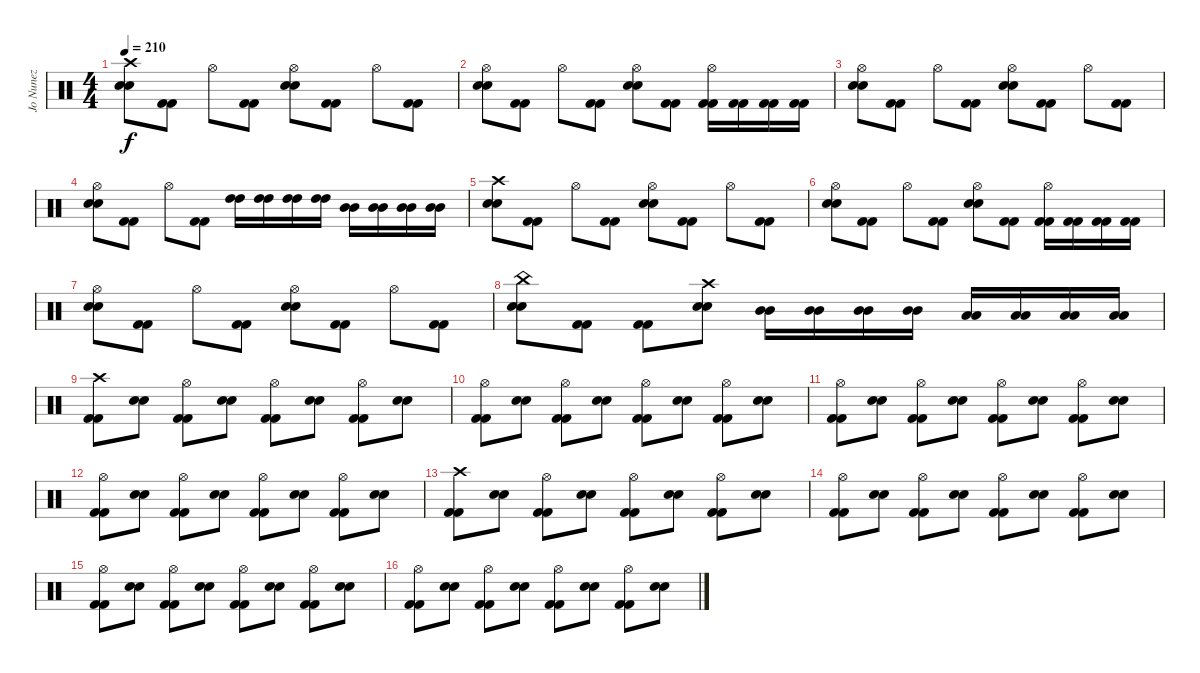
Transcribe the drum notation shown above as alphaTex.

\track ("Jo Nunez" "Jo Nunez") {instrument percussion}
\staff {score}
\articulation defaults
\ts (4 4)
\tempo 210
\clef neutral
\ks c
("Electric Snare (hit)" "Electric Snare (hit)" "Crash high (hit)").8{dy f} ("Kick (hit) 2" "Kick (hit) 2").8 "Hi-Hat (open)".8 ("Kick (hit) 2" "Kick (hit) 2").8 ("Electric Snare (hit)" "Electric Snare (hit)" "Hi-Hat (open)").8 ("Kick (hit) 2" "Kick (hit) 2").8 "Hi-Hat (open)".8 ("Kick (hit) 2" "Kick (hit) 2").8 |
("Electric Snare (hit)" "Electric Snare (hit)" "Hi-Hat (open)").8 ("Kick (hit) 2" "Kick (hit) 2").8 "Hi-Hat (open)".8 ("Kick (hit) 2" "Kick (hit) 2").8 ("Electric Snare (hit)" "Electric Snare (hit)" "Hi-Hat (open)").8 ("Kick (hit) 2" "Kick (hit) 2").8 ("Kick (hit) 2" "Kick (hit) 2" "Hi-Hat (open)").16 ("Kick (hit) 2" "Kick (hit) 2").16 ("Kick (hit) 2" "Kick (hit) 2").16 ("Kick (hit) 2" "Kick (hit) 2").16 |
("Electric Snare (hit)" "Electric Snare (hit)" "Hi-Hat (open)").8 ("Kick (hit) 2" "Kick (hit) 2").8 "Hi-Hat (open)".8 ("Kick (hit) 2" "Kick (hit) 2").8 ("Electric Snare (hit)" "Electric Snare (hit)" "Hi-Hat (open)").8 ("Kick (hit) 2" "Kick (hit) 2").8 "Hi-Hat (open)".8 ("Kick (hit) 2" "Kick (hit) 2").8 |
("Electric Snare (hit)" "Electric Snare (hit)" "Hi-Hat (open)").8 ("Kick (hit) 2" "Kick (hit) 2").8 "Hi-Hat (open)".8 ("Kick (hit) 2" "Kick (hit) 2").8 ("High Tom (hit)" "High Tom (hit)").16 ("High Tom (hit)" "High Tom (hit)").16 ("High Tom (hit)" "High Tom (hit)").16 ("High Tom (hit)" "High Tom (hit)").16 ("Mid Tom (hit)" "Mid Tom (hit)").16 ("Mid Tom (hit)" "Mid Tom (hit)").16 ("Mid Tom (hit)" "Mid Tom (hit)").16 ("Mid Tom (hit)" "Mid Tom (hit)").16 |
("Electric Snare (hit)" "Electric Snare (hit)" "Crash high (hit)").8 ("Kick (hit) 2" "Kick (hit) 2").8 "Hi-Hat (open)".8 ("Kick (hit) 2" "Kick (hit) 2").8 ("Electric Snare (hit)" "Electric Snare (hit)" "Hi-Hat (open)").8 ("Kick (hit) 2" "Kick (hit) 2").8 "Hi-Hat (open)".8 ("Kick (hit) 2" "Kick (hit) 2").8 |
("Electric Snare (hit)" "Electric Snare (hit)" "Hi-Hat (open)").8 ("Kick (hit) 2" "Kick (hit) 2").8 "Hi-Hat (open)".8 ("Kick (hit) 2" "Kick (hit) 2").8 ("Electric Snare (hit)" "Electric Snare (hit)" "Hi-Hat (open)").8 ("Kick (hit) 2" "Kick (hit) 2").8 ("Kick (hit) 2" "Kick (hit) 2" "Hi-Hat (open)").16 ("Kick (hit) 2" "Kick (hit) 2").16 ("Kick (hit) 2" "Kick (hit) 2").16 ("Kick (hit) 2" "Kick (hit) 2").16 |
("Electric Snare (hit)" "Electric Snare (hit)" "Hi-Hat (open)").8 ("Kick (hit) 2" "Kick (hit) 2").8 "Hi-Hat (open)".8 ("Kick (hit) 2" "Kick (hit) 2").8 ("Electric Snare (hit)" "Electric Snare (hit)" "Hi-Hat (open)").8 ("Kick (hit) 2" "Kick (hit) 2").8 "Hi-Hat (open)".8 ("Kick (hit) 2" "Kick (hit) 2").8 |
("Electric Snare (hit)" "Electric Snare (hit)" "China (hit)").8 ("Kick (hit) 2" "Kick (hit) 2").8 ("Kick (hit) 2" "Kick (hit) 2").8 ("Electric Snare (hit)" "Electric Snare (hit)" "Crash high (hit)").8 ("Mid Tom (hit)" "Mid Tom (hit)").16 ("Mid Tom (hit)" "Mid Tom (hit)").16 ("Mid Tom (hit)" "Mid Tom (hit)").16 ("Mid Tom (hit)" "Mid Tom (hit)").16 ("Low Tom (hit)" "Low Tom (hit)").16 ("Low Tom (hit)" "Low Tom (hit)").16 ("Low Tom (hit)" "Low Tom (hit)").16 ("Low Tom (hit)" "Low Tom (hit)").16 |
("Kick (hit) 2" "Kick (hit) 2" "Crash high (hit)").8 ("Electric Snare (hit)" "Electric Snare (hit)").8 ("Kick (hit) 2" "Kick (hit) 2" "Hi-Hat (open)").8 ("Electric Snare (hit)" "Electric Snare (hit)").8 ("Kick (hit) 2" "Kick (hit) 2" "Hi-Hat (open)").8 ("Electric Snare (hit)" "Electric Snare (hit)").8 ("Kick (hit) 2" "Kick (hit) 2" "Hi-Hat (open)").8 ("Electric Snare (hit)" "Electric Snare (hit)").8 |
("Kick (hit) 2" "Kick (hit) 2" "Hi-Hat (open)").8 ("Electric Snare (hit)" "Electric Snare (hit)").8 ("Kick (hit) 2" "Kick (hit) 2" "Hi-Hat (open)").8 ("Electric Snare (hit)" "Electric Snare (hit)").8 ("Kick (hit) 2" "Kick (hit) 2" "Hi-Hat (open)").8 ("Electric Snare (hit)" "Electric Snare (hit)").8 ("Kick (hit) 2" "Kick (hit) 2" "Hi-Hat (open)").8 ("Electric Snare (hit)" "Electric Snare (hit)").8 |
("Kick (hit) 2" "Kick (hit) 2" "Hi-Hat (open)").8 ("Electric Snare (hit)" "Electric Snare (hit)").8 ("Kick (hit) 2" "Kick (hit) 2" "Hi-Hat (open)").8 ("Electric Snare (hit)" "Electric Snare (hit)").8 ("Kick (hit) 2" "Kick (hit) 2" "Hi-Hat (open)").8 ("Electric Snare (hit)" "Electric Snare (hit)").8 ("Kick (hit) 2" "Kick (hit) 2" "Hi-Hat (open)").8 ("Electric Snare (hit)" "Electric Snare (hit)").8 |
("Kick (hit) 2" "Kick (hit) 2" "Hi-Hat (open)").8 ("Electric Snare (hit)" "Electric Snare (hit)").8 ("Kick (hit) 2" "Kick (hit) 2" "Hi-Hat (open)").8 ("Electric Snare (hit)" "Electric Snare (hit)").8 ("Kick (hit) 2" "Kick (hit) 2" "Hi-Hat (open)").8 ("Electric Snare (hit)" "Electric Snare (hit)").8 ("Kick (hit) 2" "Kick (hit) 2" "Hi-Hat (open)").8 ("Electric Snare (hit)" "Electric Snare (hit)").8 |
("Kick (hit) 2" "Kick (hit) 2" "Crash high (hit)").8 ("Electric Snare (hit)" "Electric Snare (hit)").8 ("Kick (hit) 2" "Kick (hit) 2" "Hi-Hat (open)").8 ("Electric Snare (hit)" "Electric Snare (hit)").8 ("Kick (hit) 2" "Kick (hit) 2" "Hi-Hat (open)").8 ("Electric Snare (hit)" "Electric Snare (hit)").8 ("Kick (hit) 2" "Kick (hit) 2" "Hi-Hat (open)").8 ("Electric Snare (hit)" "Electric Snare (hit)").8 |
("Kick (hit) 2" "Kick (hit) 2" "Hi-Hat (open)").8 ("Electric Snare (hit)" "Electric Snare (hit)").8 ("Kick (hit) 2" "Kick (hit) 2" "Hi-Hat (open)").8 ("Electric Snare (hit)" "Electric Snare (hit)").8 ("Kick (hit) 2" "Kick (hit) 2" "Hi-Hat (open)").8 ("Electric Snare (hit)" "Electric Snare (hit)").8 ("Kick (hit) 2" "Kick (hit) 2" "Hi-Hat (open)").8 ("Electric Snare (hit)" "Electric Snare (hit)").8 |
("Kick (hit) 2" "Kick (hit) 2" "Hi-Hat (open)").8 ("Electric Snare (hit)" "Electric Snare (hit)").8 ("Kick (hit) 2" "Kick (hit) 2" "Hi-Hat (open)").8 ("Electric Snare (hit)" "Electric Snare (hit)").8 ("Kick (hit) 2" "Kick (hit) 2" "Hi-Hat (open)").8 ("Electric Snare (hit)" "Electric Snare (hit)").8 ("Kick (hit) 2" "Kick (hit) 2" "Hi-Hat (open)").8 ("Electric Snare (hit)" "Electric Snare (hit)").8 |
("Kick (hit) 2" "Kick (hit) 2" "Hi-Hat (open)").8 ("Electric Snare (hit)" "Electric Snare (hit)").8 ("Kick (hit) 2" "Kick (hit) 2" "Hi-Hat (open)").8 ("Electric Snare (hit)" "Electric Snare (hit)").8 ("Kick (hit) 2" "Kick (hit) 2" "Hi-Hat (open)").8 ("Electric Snare (hit)" "Electric Snare (hit)").8 ("Kick (hit) 2" "Kick (hit) 2" "Hi-Hat (open)").8 ("Electric Snare (hit)" "Electric Snare (hit)").8
